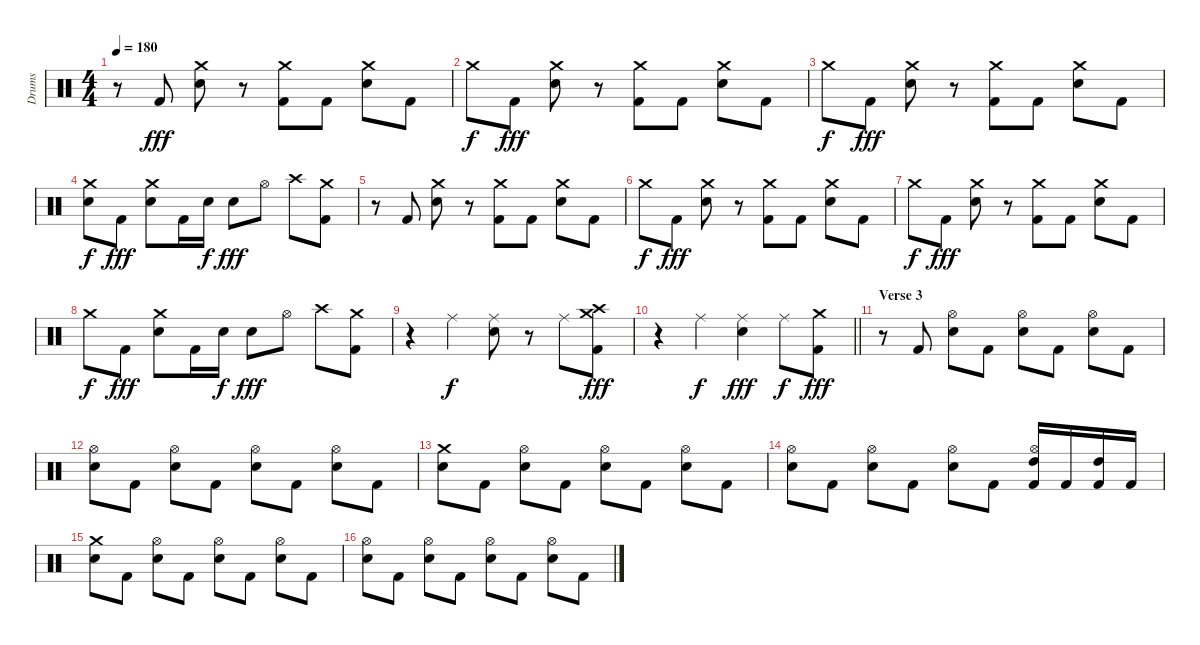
\track ("Drums" "Drums") {instrument percussion}
\staff {score}
\articulation defaults
\ts (4 4)
\tempo 180
\clef neutral
\ks c
r.8{dy fff} "Kick (hit) 2".8 ("Crash medium (hit)" "Electric Snare (hit)").8 r.8 ("Crash medium (hit)" "Kick (hit) 2").8 "Kick (hit) 2".8 ("Crash medium (hit)" "Electric Snare (hit)").8 "Kick (hit) 2".8 |
"Crash medium (hit)".8{dy f} "Kick (hit) 2".8{dy fff} ("Crash medium (hit)" "Electric Snare (hit)").8 r.8 ("Crash medium (hit)" "Kick (hit) 2").8 "Kick (hit) 2".8 ("Crash medium (hit)" "Electric Snare (hit)").8 "Kick (hit) 2".8 |
"Crash medium (hit)".8{dy f} "Kick (hit) 2".8{dy fff} ("Crash medium (hit)" "Electric Snare (hit)").8 r.8 ("Crash medium (hit)" "Kick (hit) 2").8 "Kick (hit) 2".8 ("Crash medium (hit)" "Electric Snare (hit)").8 "Kick (hit) 2".8 |
("Crash medium (hit)" "Electric Snare (hit)").8{dy f} "Kick (hit) 2".8{dy fff} ("Crash medium (hit)" "Electric Snare (hit)").8 "Kick (hit) 2".16 "Electric Snare (hit)".16{dy f} "Electric Snare (hit)".8{dy fff} "Hi-Hat (open)".8 "Crash high (hit)".8 ("Crash medium (hit)" "Kick (hit) 2").8 |
r.8 "Kick (hit) 2".8 ("Crash medium (hit)" "Electric Snare (hit)").8 r.8 ("Crash medium (hit)" "Kick (hit) 2").8 "Kick (hit) 2".8 ("Crash medium (hit)" "Electric Snare (hit)").8 "Kick (hit) 2".8 |
"Crash medium (hit)".8{dy f} "Kick (hit) 2".8{dy fff} ("Crash medium (hit)" "Electric Snare (hit)").8 r.8 ("Crash medium (hit)" "Kick (hit) 2").8 "Kick (hit) 2".8 ("Crash medium (hit)" "Electric Snare (hit)").8 "Kick (hit) 2".8 |
"Crash medium (hit)".8{dy f} "Kick (hit) 2".8{dy fff} ("Crash medium (hit)" "Electric Snare (hit)").8 r.8 ("Crash medium (hit)" "Kick (hit) 2").8 "Kick (hit) 2".8 ("Crash medium (hit)" "Electric Snare (hit)").8 "Kick (hit) 2".8 |
"Crash medium (hit)".8{dy f} "Kick (hit) 2".8{dy fff} ("Crash medium (hit)" "Electric Snare (hit)").8 "Kick (hit) 2".16 "Electric Snare (hit)".16{dy f} "Electric Snare (hit)".8{dy fff} "Hi-Hat (open)".8 "Crash high (hit)".8 ("Crash medium (hit)" "Kick (hit) 2").8 |
r.4 "Ride (middle)".4{dy f} ("Ride (middle)" "Electric Snare (hit)").8 r.8 "Ride (middle)".8 ("Crash medium (hit)" "Crash high (hit)" "Kick (hit) 2").8{dy fff} |
\barLineRight lightlight
r.4 "Ride (middle)".4{dy f} ("Ride (middle)" "Electric Snare (hit)").4{dy fff} "Ride (middle)".8{dy f} ("Crash medium (hit)" "Kick (hit) 2").8{dy fff} |
\section ("" "Verse 3")
r.8 "Kick (hit) 2".8 ("Hi-Hat (open)" "Electric Snare (hit)").8 "Kick (hit) 2".8 ("Hi-Hat (open)" "Electric Snare (hit)").8 "Kick (hit) 2".8 ("Hi-Hat (open)" "Electric Snare (hit)").8 "Kick (hit) 2".8 |
("Hi-Hat (open)" "Electric Snare (hit)").8 "Kick (hit) 2".8 ("Hi-Hat (open)" "Electric Snare (hit)").8 "Kick (hit) 2".8 ("Hi-Hat (open)" "Electric Snare (hit)").8 "Kick (hit) 2".8 ("Hi-Hat (open)" "Electric Snare (hit)").8 "Kick (hit) 2".8 |
("Crash medium (hit)" "Electric Snare (hit)").8 "Kick (hit) 2".8 ("Hi-Hat (open)" "Electric Snare (hit)").8 "Kick (hit) 2".8 ("Hi-Hat (open)" "Electric Snare (hit)").8 "Kick (hit) 2".8 ("Hi-Hat (open)" "Electric Snare (hit)").8 "Kick (hit) 2".8 |
("Hi-Hat (open)" "Electric Snare (hit)").8 "Kick (hit) 2".8 ("Hi-Hat (open)" "Electric Snare (hit)").8 "Kick (hit) 2".8 ("Hi-Hat (open)" "Electric Snare (hit)").8 "Kick (hit) 2".8 ("Hi-Hat (open)" "High Tom (hit)" "Kick (hit) 2").16 "Kick (hit) 2".16 ("High Tom (hit)" "Kick (hit) 2").16 "Kick (hit) 2".16 |
("Crash medium (hit)" "Electric Snare (hit)").8 "Kick (hit) 2".8 ("Hi-Hat (open)" "Electric Snare (hit)").8 "Kick (hit) 2".8 ("Hi-Hat (open)" "Electric Snare (hit)").8 "Kick (hit) 2".8 ("Hi-Hat (open)" "Electric Snare (hit)").8 "Kick (hit) 2".8 |
("Hi-Hat (open)" "Electric Snare (hit)").8 "Kick (hit) 2".8 ("Hi-Hat (open)" "Electric Snare (hit)").8 "Kick (hit) 2".8 ("Hi-Hat (open)" "Electric Snare (hit)").8 "Kick (hit) 2".8 ("Hi-Hat (open)" "Electric Snare (hit)").8 "Kick (hit) 2".8
